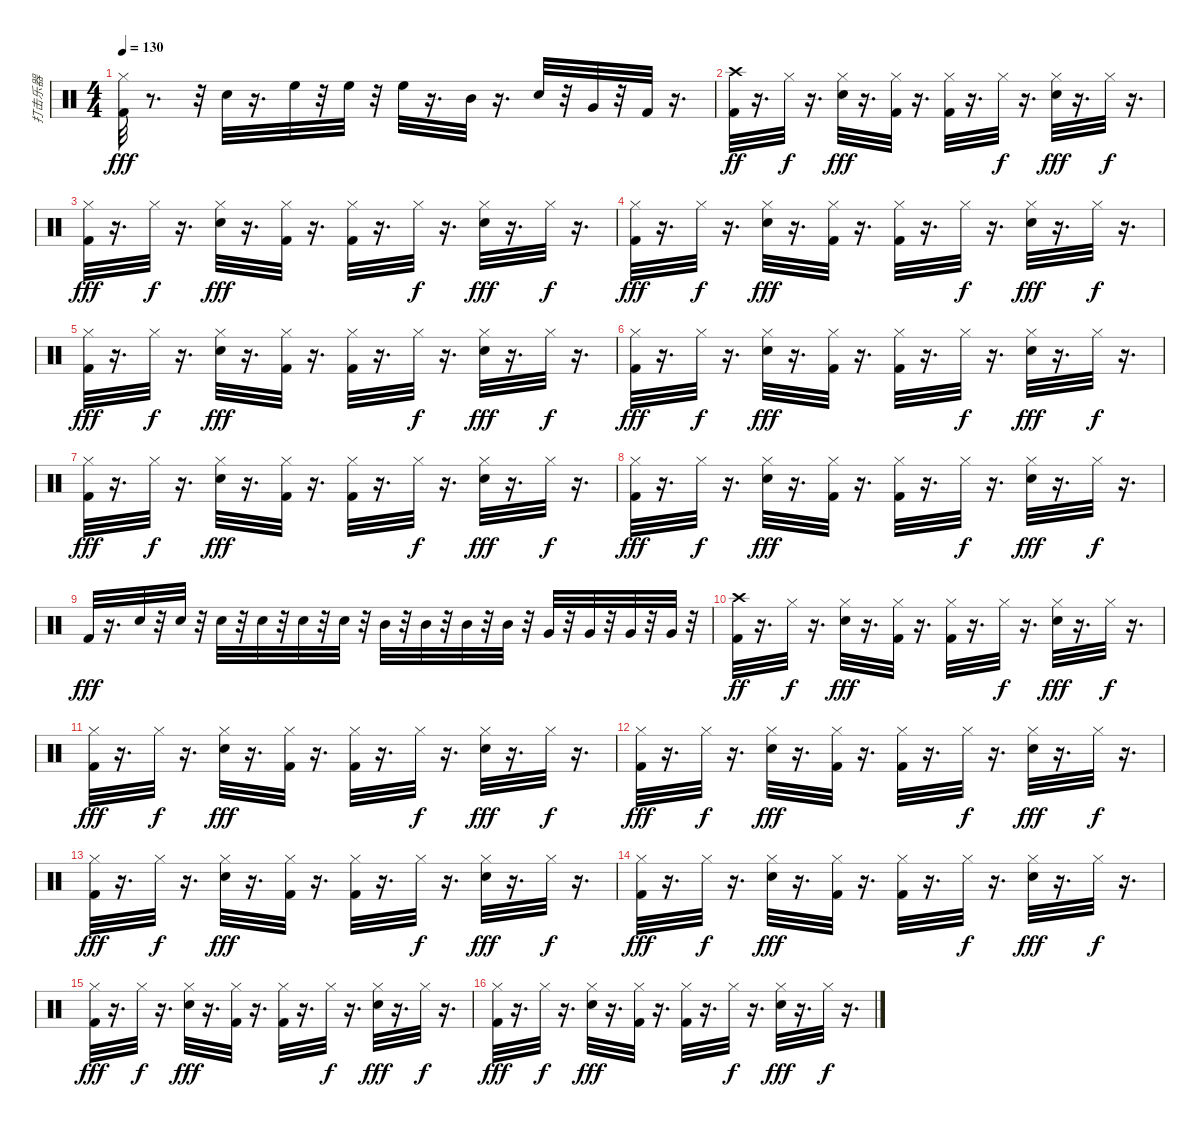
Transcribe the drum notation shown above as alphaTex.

\track ("打击乐器" "打击乐器") {instrument percussion}
\staff {score}
\articulation defaults
\ts (4 4)
\tempo 130
\clef neutral
\ks c
("Kick (hit) 2" "Hi-Hat (closed)").32{dy fff} r.8{d} r.32 "Electric Snare (hit)".32 r.16{d} "High Floor Tom (hit)".32 r.32 "High Floor Tom (hit)".32 r.32 "High Floor Tom (hit)".32 r.16{d} "Mid Tom (hit)".32 r.16{d} "Electric Snare (hit)".32 r.32 "Very Low Tom (hit)".32 r.32 "Kick (hit) 2".32 r.16{d} |
("Kick (hit) 2" "Crash high (hit)").32{dy ff} r.16{d} "Hi-Hat (closed)".32{dy f} r.16{d} ("Hi-Hat (closed)" "Electric Snare (hit)").32{dy fff} r.16{d} ("Kick (hit) 2" "Hi-Hat (closed)").32 r.16{d} ("Kick (hit) 2" "Hi-Hat (closed)").32 r.16{d} "Hi-Hat (closed)".32{dy f} r.16{d} ("Hi-Hat (closed)" "Electric Snare (hit)").32{dy fff} r.16{d} "Hi-Hat (closed)".32{dy f} r.16{d} |
("Kick (hit) 2" "Hi-Hat (closed)").32{dy fff} r.16{d} "Hi-Hat (closed)".32{dy f} r.16{d} ("Hi-Hat (closed)" "Electric Snare (hit)").32{dy fff} r.16{d} ("Kick (hit) 2" "Hi-Hat (closed)").32 r.16{d} ("Kick (hit) 2" "Hi-Hat (closed)").32 r.16{d} "Hi-Hat (closed)".32{dy f} r.16{d} ("Hi-Hat (closed)" "Electric Snare (hit)").32{dy fff} r.16{d} "Hi-Hat (closed)".32{dy f} r.16{d} |
("Kick (hit) 2" "Hi-Hat (closed)").32{dy fff} r.16{d} "Hi-Hat (closed)".32{dy f} r.16{d} ("Hi-Hat (closed)" "Electric Snare (hit)").32{dy fff} r.16{d} ("Kick (hit) 2" "Hi-Hat (closed)").32 r.16{d} ("Kick (hit) 2" "Hi-Hat (closed)").32 r.16{d} "Hi-Hat (closed)".32{dy f} r.16{d} ("Hi-Hat (closed)" "Electric Snare (hit)").32{dy fff} r.16{d} "Hi-Hat (closed)".32{dy f} r.16{d} |
("Hi-Hat (closed)" "Kick (hit) 2").32{dy fff} r.16{d} "Hi-Hat (closed)".32{dy f} r.16{d} ("Hi-Hat (closed)" "Electric Snare (hit)").32{dy fff} r.16{d} ("Kick (hit) 2" "Hi-Hat (closed)").32 r.16{d} ("Kick (hit) 2" "Hi-Hat (closed)").32 r.16{d} "Hi-Hat (closed)".32{dy f} r.16{d} ("Hi-Hat (closed)" "Electric Snare (hit)").32{dy fff} r.16{d} "Hi-Hat (closed)".32{dy f} r.16{d} |
("Kick (hit) 2" "Hi-Hat (closed)").32{dy fff} r.16{d} "Hi-Hat (closed)".32{dy f} r.16{d} ("Hi-Hat (closed)" "Electric Snare (hit)").32{dy fff} r.16{d} ("Kick (hit) 2" "Hi-Hat (closed)").32 r.16{d} ("Kick (hit) 2" "Hi-Hat (closed)").32 r.16{d} "Hi-Hat (closed)".32{dy f} r.16{d} ("Hi-Hat (closed)" "Electric Snare (hit)").32{dy fff} r.16{d} "Hi-Hat (closed)".32{dy f} r.16{d} |
("Kick (hit) 2" "Hi-Hat (closed)").32{dy fff} r.16{d} "Hi-Hat (closed)".32{dy f} r.16{d} ("Hi-Hat (closed)" "Electric Snare (hit)").32{dy fff} r.16{d} ("Kick (hit) 2" "Hi-Hat (closed)").32 r.16{d} ("Kick (hit) 2" "Hi-Hat (closed)").32 r.16{d} "Hi-Hat (closed)".32{dy f} r.16{d} ("Hi-Hat (closed)" "Electric Snare (hit)").32{dy fff} r.16{d} "Hi-Hat (closed)".32{dy f} r.16{d} |
("Kick (hit) 2" "Hi-Hat (closed)").32{dy fff} r.16{d} "Hi-Hat (closed)".32{dy f} r.16{d} ("Hi-Hat (closed)" "Electric Snare (hit)").32{dy fff} r.16{d} ("Kick (hit) 2" "Hi-Hat (closed)").32 r.16{d} ("Kick (hit) 2" "Hi-Hat (closed)").32 r.16{d} "Hi-Hat (closed)".32{dy f} r.16{d} ("Hi-Hat (closed)" "Electric Snare (hit)").32{dy fff} r.16{d} "Hi-Hat (closed)".32{dy f} r.16{d} |
"Kick (hit) 2".32{dy fff} r.16{d} "Snare (hit) 2".32 r.32 "Electric Snare (hit)".32 r.32 "Snare (hit) 2".32 r.32 "Electric Snare (hit)".32 r.32 "Snare (hit) 2".32 r.32 "Electric Snare (hit)".32 r.32 "Mid Tom (hit)".32 r.32 "Mid Tom (hit)".32 r.32 "Mid Tom (hit)".32 r.32 "Mid Tom (hit)".32 r.32 "Very Low Tom (hit)".32 r.32 "Very Low Tom (hit)".32 r.32 "Very Low Tom (hit)".32 r.32 "Very Low Tom (hit)".32 r.32 |
("Kick (hit) 2" "Crash high (hit)").32{dy ff} r.16{d} "Hi-Hat (closed)".32{dy f} r.16{d} ("Hi-Hat (closed)" "Electric Snare (hit)").32{dy fff} r.16{d} ("Kick (hit) 2" "Hi-Hat (closed)").32 r.16{d} ("Kick (hit) 2" "Hi-Hat (closed)").32 r.16{d} "Hi-Hat (closed)".32{dy f} r.16{d} ("Hi-Hat (closed)" "Electric Snare (hit)").32{dy fff} r.16{d} "Hi-Hat (closed)".32{dy f} r.16{d} |
("Kick (hit) 2" "Hi-Hat (closed)").32{dy fff} r.16{d} "Hi-Hat (closed)".32{dy f} r.16{d} ("Hi-Hat (closed)" "Electric Snare (hit)").32{dy fff} r.16{d} ("Kick (hit) 2" "Hi-Hat (closed)").32 r.16{d} ("Kick (hit) 2" "Hi-Hat (closed)").32 r.16{d} "Hi-Hat (closed)".32{dy f} r.16{d} ("Hi-Hat (closed)" "Electric Snare (hit)").32{dy fff} r.16{d} "Hi-Hat (closed)".32{dy f} r.16{d} |
("Kick (hit) 2" "Hi-Hat (closed)").32{dy fff} r.16{d} "Hi-Hat (closed)".32{dy f} r.16{d} ("Hi-Hat (closed)" "Electric Snare (hit)").32{dy fff} r.16{d} ("Kick (hit) 2" "Hi-Hat (closed)").32 r.16{d} ("Kick (hit) 2" "Hi-Hat (closed)").32 r.16{d} "Hi-Hat (closed)".32{dy f} r.16{d} ("Hi-Hat (closed)" "Electric Snare (hit)").32{dy fff} r.16{d} "Hi-Hat (closed)".32{dy f} r.16{d} |
("Hi-Hat (closed)" "Kick (hit) 2").32{dy fff} r.16{d} "Hi-Hat (closed)".32{dy f} r.16{d} ("Hi-Hat (closed)" "Electric Snare (hit)").32{dy fff} r.16{d} ("Kick (hit) 2" "Hi-Hat (closed)").32 r.16{d} ("Kick (hit) 2" "Hi-Hat (closed)").32 r.16{d} "Hi-Hat (closed)".32{dy f} r.16{d} ("Hi-Hat (closed)" "Electric Snare (hit)").32{dy fff} r.16{d} "Hi-Hat (closed)".32{dy f} r.16{d} |
("Kick (hit) 2" "Hi-Hat (closed)").32{dy fff} r.16{d} "Hi-Hat (closed)".32{dy f} r.16{d} ("Hi-Hat (closed)" "Electric Snare (hit)").32{dy fff} r.16{d} ("Kick (hit) 2" "Hi-Hat (closed)").32 r.16{d} ("Kick (hit) 2" "Hi-Hat (closed)").32 r.16{d} "Hi-Hat (closed)".32{dy f} r.16{d} ("Hi-Hat (closed)" "Electric Snare (hit)").32{dy fff} r.16{d} "Hi-Hat (closed)".32{dy f} r.16{d} |
("Kick (hit) 2" "Hi-Hat (closed)").32{dy fff} r.16{d} "Hi-Hat (closed)".32{dy f} r.16{d} ("Hi-Hat (closed)" "Electric Snare (hit)").32{dy fff} r.16{d} ("Kick (hit) 2" "Hi-Hat (closed)").32 r.16{d} ("Kick (hit) 2" "Hi-Hat (closed)").32 r.16{d} "Hi-Hat (closed)".32{dy f} r.16{d} ("Hi-Hat (closed)" "Electric Snare (hit)").32{dy fff} r.16{d} "Hi-Hat (closed)".32{dy f} r.16{d} |
("Kick (hit) 2" "Hi-Hat (closed)").32{dy fff} r.16{d} "Hi-Hat (closed)".32{dy f} r.16{d} ("Hi-Hat (closed)" "Electric Snare (hit)").32{dy fff} r.16{d} ("Kick (hit) 2" "Hi-Hat (closed)").32 r.16{d} ("Kick (hit) 2" "Hi-Hat (closed)").32 r.16{d} "Hi-Hat (closed)".32{dy f} r.16{d} ("Hi-Hat (closed)" "Electric Snare (hit)").32{dy fff} r.16{d} "Hi-Hat (closed)".32{dy f} r.16{d}
